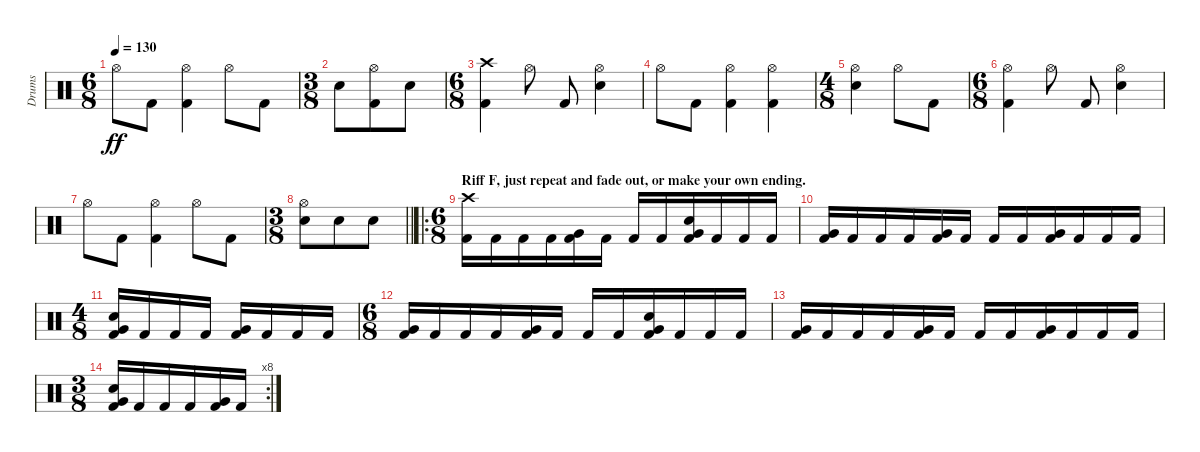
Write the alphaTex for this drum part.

\track ("Drums" "Drums") {instrument percussion}
\staff {score}
\articulation defaults
\ts (6 8)
\tempo 130
\clef neutral
\ks c "Hi-Hat (open)".8{dy ff} "Kick (hit) 2".8
("Hi-Hat (open)" "Kick (hit) 2").4 "Hi-Hat (open)".8 "Kick (hit) 2".8 |
\ts (3 8)
"Snare (hit) 2".8 ("Hi-Hat (open)" "Kick (hit) 2").8 "Snare (hit) 2".8 |
\ts (6 8)
("Kick (hit) 2" "Crash high (hit)").4 "Hi-Hat (open)".8 "Kick (hit) 2".8 ("Hi-Hat (open)" "Snare (hit) 2").4 |
"Hi-Hat (open)".8 "Kick (hit) 2".8 ("Hi-Hat (open)" "Kick (hit) 2").4 ("Kick (hit) 2" "Hi-Hat (open)").4 |
\ts (4 8)
("Hi-Hat (open)" "Snare (hit) 2").4 "Hi-Hat (open)".8 "Kick (hit) 2".8 |
\ts (6 8)
("Kick (hit) 2" "Hi-Hat (open)").4 "Hi-Hat (open)".8 "Kick (hit) 2".8 ("Hi-Hat (open)" "Snare (hit) 2").4 |
"Hi-Hat (open)".8 "Kick (hit) 2".8 ("Hi-Hat (open)" "Kick (hit) 2").4 "Hi-Hat (open)".8 "Kick (hit) 2".8 |
\ts (3 8)
\barLineRight lightlight
("Snare (hit) 2" "Hi-Hat (open)").8 "Snare (hit) 2".8 "Snare (hit) 2".8 |
\ro
\ts (6 8)
\section ("" "Riff F, just repeat and fade out, or make your own ending.")
("Crash high (hit)" "Kick (hit) 2").16 "Kick (hit) 2".16 "Kick (hit) 2".16 "Kick (hit) 2".16 ("Kick (hit) 2" "Very Low Tom (hit)").16 "Kick (hit) 2".16 "Kick (hit) 2".16 "Kick (hit) 2".16 ("Kick (hit) 2" "Very Low Tom (hit)" "Snare (hit) 2").16 "Kick (hit) 2".16 "Kick (hit) 2".16 "Kick (hit) 2".16 |
("Very Low Tom (hit)" "Kick (hit) 2").16 "Kick (hit) 2".16 "Kick (hit) 2".16 "Kick (hit) 2".16 ("Kick (hit) 2" "Very Low Tom (hit)").16 "Kick (hit) 2".16 "Kick (hit) 2".16 "Kick (hit) 2".16 ("Kick (hit) 2" "Very Low Tom (hit)").16 "Kick (hit) 2".16 "Kick (hit) 2".16 "Kick (hit) 2".16 |
\ts (4 8)
("Kick (hit) 2" "Very Low Tom (hit)" "Snare (hit) 2").16 "Kick (hit) 2".16 "Kick (hit) 2".16 "Kick (hit) 2".16 ("Kick (hit) 2" "Very Low Tom (hit)").16 "Kick (hit) 2".16 "Kick (hit) 2".16 "Kick (hit) 2".16 |
\ts (6 8)
("Very Low Tom (hit)" "Kick (hit) 2").16 "Kick (hit) 2".16 "Kick (hit) 2".16 "Kick (hit) 2".16 ("Kick (hit) 2" "Very Low Tom (hit)").16 "Kick (hit) 2".16 "Kick (hit) 2".16 "Kick (hit) 2".16 ("Kick (hit) 2" "Very Low Tom (hit)" "Snare (hit) 2").16 "Kick (hit) 2".16 "Kick (hit) 2".16 "Kick (hit) 2".16 |
("Very Low Tom (hit)" "Kick (hit) 2").16 "Kick (hit) 2".16 "Kick (hit) 2".16 "Kick (hit) 2".16 ("Kick (hit) 2" "Very Low Tom (hit)").16 "Kick (hit) 2".16 "Kick (hit) 2".16 "Kick (hit) 2".16 ("Kick (hit) 2" "Very Low Tom (hit)").16 "Kick (hit) 2".16 "Kick (hit) 2".16 "Kick (hit) 2".16 |
\rc 8
\ts (3 8)
("Kick (hit) 2" "Very Low Tom (hit)" "Snare (hit) 2").16 "Kick (hit) 2".16 "Kick (hit) 2".16 "Kick (hit) 2".16 ("Kick (hit) 2" "Very Low Tom (hit)").16 "Kick (hit) 2".16
